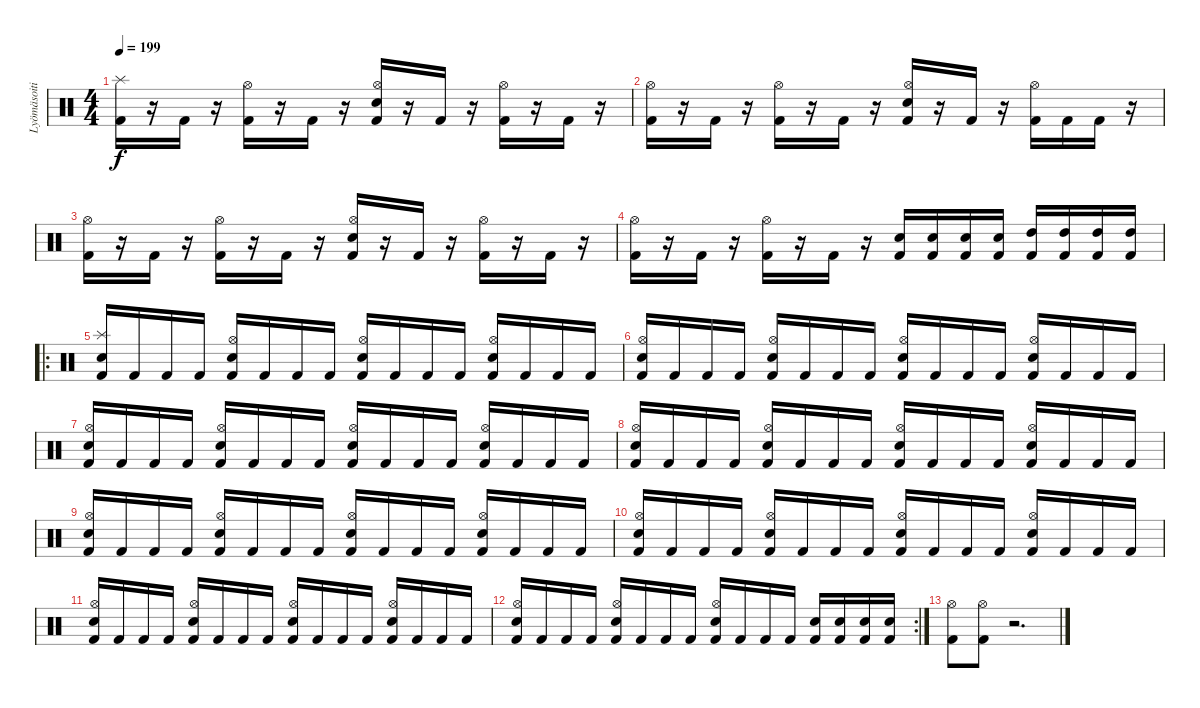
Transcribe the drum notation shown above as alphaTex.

\track ("Lyömäsoitin" "Lyömäsoiti") {instrument percussion}
\staff {score}
\articulation defaults
\ts (4 4)
\tempo 199
\clef neutral
\ks c
("Kick (hit) 2" "Splash (hit)").16{dy f} r.16 "Kick (hit) 2".16 r.16 ("Kick (hit) 2" "Hi-Hat (open)").16 r.16 "Kick (hit) 2".16 r.16 ("Kick (hit) 2" "Hi-Hat (open)" "Snare (hit) 2").16 r.16 "Kick (hit) 2".16 r.16 ("Kick (hit) 2" "Hi-Hat (open)").16 r.16 "Kick (hit) 2".16 r.16 |
("Kick (hit) 2" "Hi-Hat (open)").16 r.16 "Kick (hit) 2".16 r.16 ("Kick (hit) 2" "Hi-Hat (open)").16 r.16 "Kick (hit) 2".16 r.16 ("Kick (hit) 2" "Hi-Hat (open)" "Snare (hit) 2").16 r.16 "Kick (hit) 2".16 r.16 ("Kick (hit) 2" "Hi-Hat (open)").16 "Kick (hit) 2".16 "Kick (hit) 2".16 r.16 |
("Kick (hit) 2" "Hi-Hat (open)").16 r.16 "Kick (hit) 2".16 r.16 ("Kick (hit) 2" "Hi-Hat (open)").16 r.16 "Kick (hit) 2".16 r.16 ("Kick (hit) 2" "Hi-Hat (open)" "Snare (hit) 2").16 r.16 "Kick (hit) 2".16 r.16 ("Kick (hit) 2" "Hi-Hat (open)").16 r.16 "Kick (hit) 2".16 r.16 |
("Kick (hit) 2" "Hi-Hat (open)").16 r.16 "Kick (hit) 2".16 r.16 ("Kick (hit) 2" "Hi-Hat (open)").16 r.16 "Kick (hit) 2".16 r.16 ("Kick (hit) 2" "Snare (hit) 2").16 ("Kick (hit) 2" "Snare (hit) 2").16 ("Kick (hit) 2" "Snare (hit) 2").16 ("Kick (hit) 2" "Snare (hit) 2").16 ("Kick (hit) 2" "High Tom (hit)").16 ("Kick (hit) 2" "High Tom (hit)").16 ("Kick (hit) 2" "High Tom (hit)").16 ("Kick (hit) 2" "High Tom (hit)").16 |
\ro
("Kick (hit) 2" "Splash (hit)" "Snare (hit) 2").16 "Kick (hit) 2".16 "Kick (hit) 2".16 "Kick (hit) 2".16 ("Kick (hit) 2" "Hi-Hat (open)" "Snare (hit) 2").16 "Kick (hit) 2".16 "Kick (hit) 2".16 "Kick (hit) 2".16 ("Kick (hit) 2" "Hi-Hat (open)" "Snare (hit) 2").16 "Kick (hit) 2".16 "Kick (hit) 2".16 "Kick (hit) 2".16 ("Kick (hit) 2" "Hi-Hat (open)" "Snare (hit) 2").16 "Kick (hit) 2".16 "Kick (hit) 2".16 "Kick (hit) 2".16 |
("Kick (hit) 2" "Hi-Hat (open)" "Snare (hit) 2").16 "Kick (hit) 2".16 "Kick (hit) 2".16 "Kick (hit) 2".16 ("Kick (hit) 2" "Hi-Hat (open)" "Snare (hit) 2").16 "Kick (hit) 2".16 "Kick (hit) 2".16 "Kick (hit) 2".16 ("Kick (hit) 2" "Hi-Hat (open)" "Snare (hit) 2").16 "Kick (hit) 2".16 "Kick (hit) 2".16 "Kick (hit) 2".16 ("Kick (hit) 2" "Hi-Hat (open)" "Snare (hit) 2").16 "Kick (hit) 2".16 "Kick (hit) 2".16 "Kick (hit) 2".16 |
("Kick (hit) 2" "Hi-Hat (open)" "Snare (hit) 2").16 "Kick (hit) 2".16 "Kick (hit) 2".16 "Kick (hit) 2".16 ("Kick (hit) 2" "Hi-Hat (open)" "Snare (hit) 2").16 "Kick (hit) 2".16 "Kick (hit) 2".16 "Kick (hit) 2".16 ("Kick (hit) 2" "Hi-Hat (open)" "Snare (hit) 2").16 "Kick (hit) 2".16 "Kick (hit) 2".16 "Kick (hit) 2".16 ("Kick (hit) 2" "Hi-Hat (open)" "Snare (hit) 2").16 "Kick (hit) 2".16 "Kick (hit) 2".16 "Kick (hit) 2".16 |
("Kick (hit) 2" "Hi-Hat (open)" "Snare (hit) 2").16 "Kick (hit) 2".16 "Kick (hit) 2".16 "Kick (hit) 2".16 ("Kick (hit) 2" "Hi-Hat (open)" "Snare (hit) 2").16 "Kick (hit) 2".16 "Kick (hit) 2".16 "Kick (hit) 2".16 ("Kick (hit) 2" "Hi-Hat (open)" "Snare (hit) 2").16 "Kick (hit) 2".16 "Kick (hit) 2".16 "Kick (hit) 2".16 ("Kick (hit) 2" "Hi-Hat (open)" "Snare (hit) 2").16 "Kick (hit) 2".16 "Kick (hit) 2".16 "Kick (hit) 2".16 |
("Kick (hit) 2" "Hi-Hat (open)" "Snare (hit) 2").16 "Kick (hit) 2".16 "Kick (hit) 2".16 "Kick (hit) 2".16 ("Kick (hit) 2" "Hi-Hat (open)" "Snare (hit) 2").16 "Kick (hit) 2".16 "Kick (hit) 2".16 "Kick (hit) 2".16 ("Kick (hit) 2" "Hi-Hat (open)" "Snare (hit) 2").16 "Kick (hit) 2".16 "Kick (hit) 2".16 "Kick (hit) 2".16 ("Kick (hit) 2" "Hi-Hat (open)" "Snare (hit) 2").16 "Kick (hit) 2".16 "Kick (hit) 2".16 "Kick (hit) 2".16 |
("Kick (hit) 2" "Hi-Hat (open)" "Snare (hit) 2").16 "Kick (hit) 2".16 "Kick (hit) 2".16 "Kick (hit) 2".16 ("Kick (hit) 2" "Hi-Hat (open)" "Snare (hit) 2").16 "Kick (hit) 2".16 "Kick (hit) 2".16 "Kick (hit) 2".16 ("Kick (hit) 2" "Hi-Hat (open)" "Snare (hit) 2").16 "Kick (hit) 2".16 "Kick (hit) 2".16 "Kick (hit) 2".16 ("Kick (hit) 2" "Hi-Hat (open)" "Snare (hit) 2").16 "Kick (hit) 2".16 "Kick (hit) 2".16 "Kick (hit) 2".16 |
("Kick (hit) 2" "Hi-Hat (open)" "Snare (hit) 2").16 "Kick (hit) 2".16 "Kick (hit) 2".16 "Kick (hit) 2".16 ("Kick (hit) 2" "Hi-Hat (open)" "Snare (hit) 2").16 "Kick (hit) 2".16 "Kick (hit) 2".16 "Kick (hit) 2".16 ("Kick (hit) 2" "Hi-Hat (open)" "Snare (hit) 2").16 "Kick (hit) 2".16 "Kick (hit) 2".16 "Kick (hit) 2".16 ("Kick (hit) 2" "Hi-Hat (open)" "Snare (hit) 2").16 "Kick (hit) 2".16 "Kick (hit) 2".16 "Kick (hit) 2".16 |
\rc 2
("Kick (hit) 2" "Hi-Hat (open)" "Snare (hit) 2").16 "Kick (hit) 2".16 "Kick (hit) 2".16 "Kick (hit) 2".16 ("Kick (hit) 2" "Hi-Hat (open)" "Snare (hit) 2").16 "Kick (hit) 2".16 "Kick (hit) 2".16 "Kick (hit) 2".16 ("Kick (hit) 2" "Hi-Hat (open)" "Snare (hit) 2").16 "Kick (hit) 2".16 "Kick (hit) 2".16 "Kick (hit) 2".16 ("Kick (hit) 2" "Snare (hit) 2").16 ("Kick (hit) 2" "Snare (hit) 2").16 ("Kick (hit) 2" "Snare (hit) 2").16 ("Kick (hit) 2" "Snare (hit) 2").16 |
("Kick (hit) 2" "Hi-Hat (open)").8 ("Kick (hit) 2" "Hi-Hat (open)").8 r.2{d}
